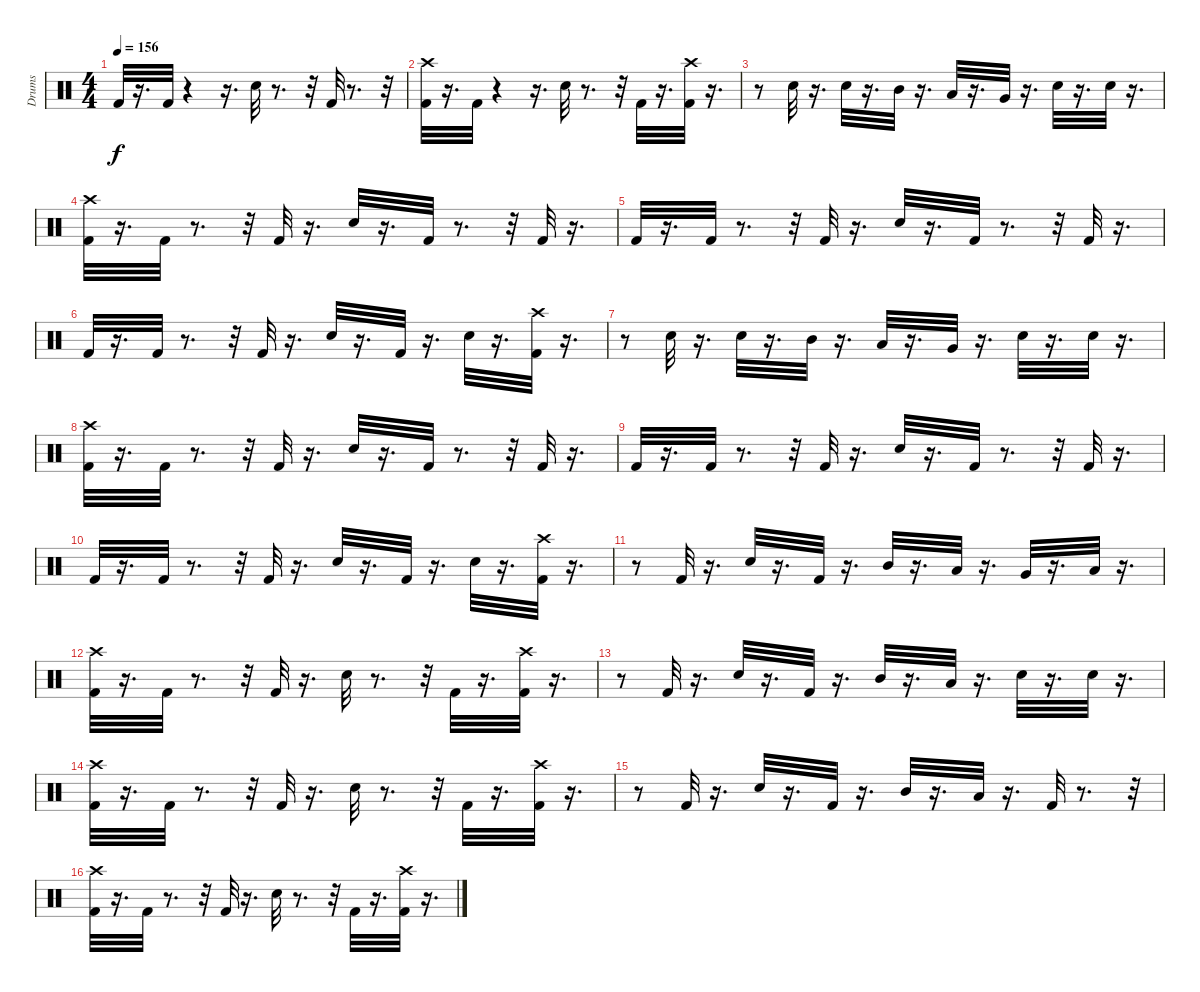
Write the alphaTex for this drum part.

\track ("Drums" "Drums") {instrument percussion}
\staff {score}
\articulation defaults
\ts (4 4)
\tempo 156
\clef neutral
\ks c "Kick (hit) 2".32{dy f}
r.16{d} "Kick (hit) 2".32 r.4 r.16{d} "Snare (hit) 2".32 r.8{d} r.32 "Kick (hit) 2".32 r.8{d} r.32 |
("Crash high (hit)" "Kick (hit) 2").32 r.16{d} "Kick (hit) 2".32 r.4 r.16{d} "Snare (hit) 2".32 r.8{d} r.32 "Kick (hit) 2".32 r.16{d} ("Crash high (hit)" "Kick (hit) 2").32 r.16{d} |
r.8 "Snare (hit) 2".32 r.16{d} "Snare (hit) 2".32 r.16{d} "Mid Tom (hit)".32 r.16{d} "Low Tom (hit)".32 r.16{d} "Very Low Tom (hit)".32 r.16{d} "Snare (hit) 2".32 r.16{d} "Snare (hit) 2".32 r.16{d} |
("Crash high (hit)" "Kick (hit) 2").32 r.16{d} "Kick (hit) 2".32 r.8{d} r.32 "Kick (hit) 2".32 r.16{d} "Snare (hit) 2".32 r.16{d} "Kick (hit) 2".32 r.8{d} r.32 "Kick (hit) 2".32 r.16{d} |
"Kick (hit) 2".32 r.16{d} "Kick (hit) 2".32 r.8{d} r.32 "Kick (hit) 2".32 r.16{d} "Snare (hit) 2".32 r.16{d} "Kick (hit) 2".32 r.8{d} r.32 "Kick (hit) 2".32 r.16{d} |
"Kick (hit) 2".32 r.16{d} "Kick (hit) 2".32 r.8{d} r.32 "Kick (hit) 2".32 r.16{d} "Snare (hit) 2".32 r.16{d} "Kick (hit) 2".32 r.16{d} "Snare (hit) 2".32 r.16{d} ("Kick (hit) 2" "Crash high (hit)").32 r.16{d} |
r.8 "Snare (hit) 2".32 r.16{d} "Snare (hit) 2".32 r.16{d} "Mid Tom (hit)".32 r.16{d} "Low Tom (hit)".32 r.16{d} "Very Low Tom (hit)".32 r.16{d} "Snare (hit) 2".32 r.16{d} "Snare (hit) 2".32 r.16{d} |
("Crash high (hit)" "Kick (hit) 2").32 r.16{d} "Kick (hit) 2".32 r.8{d} r.32 "Kick (hit) 2".32 r.16{d} "Snare (hit) 2".32 r.16{d} "Kick (hit) 2".32 r.8{d} r.32 "Kick (hit) 2".32 r.16{d} |
"Kick (hit) 2".32 r.16{d} "Kick (hit) 2".32 r.8{d} r.32 "Kick (hit) 2".32 r.16{d} "Snare (hit) 2".32 r.16{d} "Kick (hit) 2".32 r.8{d} r.32 "Kick (hit) 2".32 r.16{d} |
"Kick (hit) 2".32 r.16{d} "Kick (hit) 2".32 r.8{d} r.32 "Kick (hit) 2".32 r.16{d} "Snare (hit) 2".32 r.16{d} "Kick (hit) 2".32 r.16{d} "Snare (hit) 2".32 r.16{d} ("Kick (hit) 2" "Crash high (hit)").32 r.16{d} |
r.8 "Kick (hit) 2".32 r.16{d} "Snare (hit) 2".32 r.16{d} "Kick (hit) 2".32 r.16{d} "Mid Tom (hit)".32 r.16{d} "Low Tom (hit)".32 r.16{d} "Very Low Tom (hit)".32 r.16{d} "Low Floor Tom (hit)".32 r.16{d} |
("Crash high (hit)" "Kick (hit) 2").32 r.16{d} "Kick (hit) 2".32 r.8{d} r.32 "Kick (hit) 2".32 r.16{d} "Snare (hit) 2".32 r.8{d} r.32 "Kick (hit) 2".32 r.16{d} ("Crash high (hit)" "Kick (hit) 2").32 r.16{d} |
r.8 "Kick (hit) 2".32 r.16{d} "Snare (hit) 2".32 r.16{d} "Kick (hit) 2".32 r.16{d} "Mid Tom (hit)".32 r.16{d} "Low Tom (hit)".32 r.16{d} "Snare (hit) 2".32 r.16{d} "Snare (hit) 2".32 r.16{d} |
("Crash high (hit)" "Kick (hit) 2").32 r.16{d} "Kick (hit) 2".32 r.8{d} r.32 "Kick (hit) 2".32 r.16{d} "Snare (hit) 2".32 r.8{d} r.32 "Kick (hit) 2".32 r.16{d} ("Crash high (hit)" "Kick (hit) 2").32 r.16{d} |
r.8 "Kick (hit) 2".32 r.16{d} "Snare (hit) 2".32 r.16{d} "Kick (hit) 2".32 r.16{d} "Mid Tom (hit)".32 r.16{d} "Low Tom (hit)".32 r.16{d} "Kick (hit) 2".32 r.8{d} r.32 |
("Crash high (hit)" "Kick (hit) 2").32 r.16{d} "Kick (hit) 2".32 r.8{d} r.32 "Kick (hit) 2".32 r.16{d} "Snare (hit) 2".32 r.8{d} r.32 "Kick (hit) 2".32 r.16{d} ("Crash high (hit)" "Kick (hit) 2").32 r.16{d}
